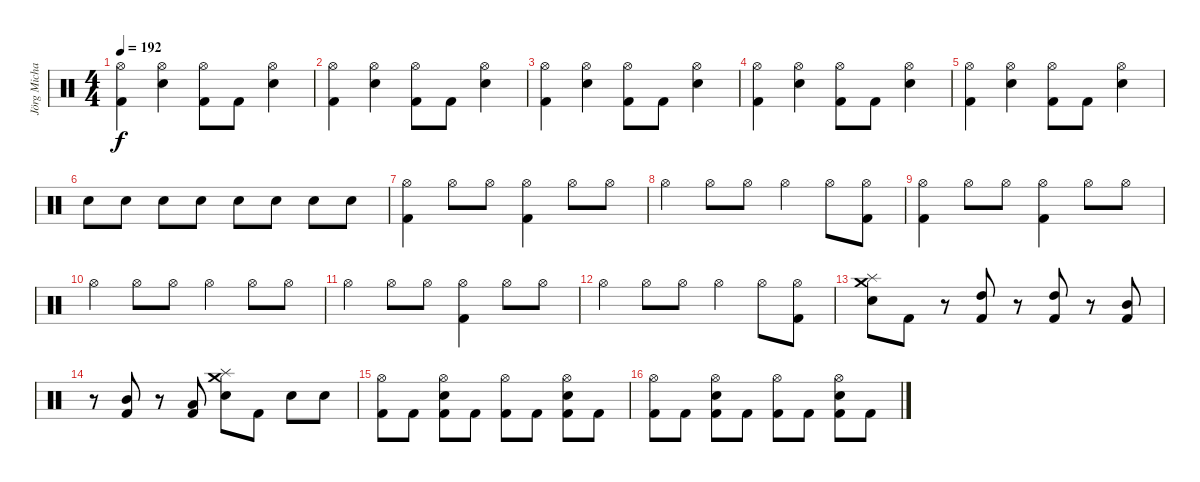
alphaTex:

\track ("Jörg Michael" "Jörg Micha") {instrument percussion}
\staff {score}
\articulation defaults
\ts (4 4)
\tempo 192
\clef neutral
\ks c
("Hi-Hat (open)" "Kick (hit) 2").4{dy f} ("Hi-Hat (open)" "Electric Snare (hit)").4 ("Hi-Hat (open)" "Kick (hit) 2").8 "Kick (hit) 2".8 ("Hi-Hat (open)" "Electric Snare (hit)").4 |
("Hi-Hat (open)" "Kick (hit) 2").4 ("Hi-Hat (open)" "Electric Snare (hit)").4 ("Hi-Hat (open)" "Kick (hit) 2").8 "Kick (hit) 2".8 ("Hi-Hat (open)" "Electric Snare (hit)").4 |
("Hi-Hat (open)" "Kick (hit) 2").4 ("Hi-Hat (open)" "Electric Snare (hit)").4 ("Hi-Hat (open)" "Kick (hit) 2").8 "Kick (hit) 2".8 ("Hi-Hat (open)" "Electric Snare (hit)").4 |
("Hi-Hat (open)" "Kick (hit) 2").4 ("Hi-Hat (open)" "Electric Snare (hit)").4 ("Hi-Hat (open)" "Kick (hit) 2").8 "Kick (hit) 2".8 ("Hi-Hat (open)" "Electric Snare (hit)").4 |
("Hi-Hat (open)" "Kick (hit) 2").4 ("Hi-Hat (open)" "Electric Snare (hit)").4 ("Hi-Hat (open)" "Kick (hit) 2").8 "Kick (hit) 2".8 ("Hi-Hat (open)" "Electric Snare (hit)").4 |
"Snare (hit) 2".8 "Snare (hit) 2".8 "Snare (hit) 2".8 "Snare (hit) 2".8 "Snare (hit) 2".8 "Snare (hit) 2".8 "Snare (hit) 2".8 "Snare (hit) 2".8 |
("Kick (hit) 2" "Hi-Hat (open)").4 "Hi-Hat (open)".8 "Hi-Hat (open)".8 ("Kick (hit) 2" "Hi-Hat (open)").4 "Hi-Hat (open)".8 "Hi-Hat (open)".8 |
"Hi-Hat (open)".4 "Hi-Hat (open)".8 "Hi-Hat (open)".8 "Hi-Hat (open)".4 "Hi-Hat (open)".8 ("Kick (hit) 2" "Hi-Hat (open)").8 |
("Kick (hit) 2" "Hi-Hat (open)").4 "Hi-Hat (open)".8 "Hi-Hat (open)".8 ("Kick (hit) 2" "Hi-Hat (open)").4 "Hi-Hat (open)".8 "Hi-Hat (open)".8 |
"Hi-Hat (open)".4 "Hi-Hat (open)".8 "Hi-Hat (open)".8 "Hi-Hat (open)".4 "Hi-Hat (open)".8 "Hi-Hat (open)".8 |
"Hi-Hat (open)".4 "Hi-Hat (open)".8 "Hi-Hat (open)".8 ("Kick (hit) 2" "Hi-Hat (open)").4 "Hi-Hat (open)".8 "Hi-Hat (open)".8 |
"Hi-Hat (open)".4 "Hi-Hat (open)".8 "Hi-Hat (open)".8 "Hi-Hat (open)".4 "Hi-Hat (open)".8 ("Kick (hit) 2" "Hi-Hat (open)").8 |
("Splash (hit)" "Crash medium (hit)" "Snare (hit) 2").8 "Kick (hit) 2".8 r.8 ("High Tom (hit)" "Kick (hit) 2").8 r.8 ("High Tom (hit)" "Kick (hit) 2").8 r.8 ("Mid Tom (hit)" "Kick (hit) 2").8 |
r.8 ("Mid Tom (hit)" "Kick (hit) 2").8 r.8 ("Low Tom (hit)" "Kick (hit) 2").8 ("Splash (hit)" "Crash medium (hit)" "Snare (hit) 2").8 "Kick (hit) 2".8 "Snare (hit) 2".8 "Snare (hit) 2".8 |
("Hi-Hat (open)" "Kick (hit) 2").8 "Kick (hit) 2".8 ("Electric Snare (hit)" "Hi-Hat (open)" "Kick (hit) 2").8 "Kick (hit) 2".8 ("Hi-Hat (open)" "Kick (hit) 2").8 "Kick (hit) 2".8 ("Electric Snare (hit)" "Hi-Hat (open)" "Kick (hit) 2").8 "Kick (hit) 2".8 |
("Hi-Hat (open)" "Kick (hit) 2").8 "Kick (hit) 2".8 ("Electric Snare (hit)" "Hi-Hat (open)" "Kick (hit) 2").8 "Kick (hit) 2".8 ("Hi-Hat (open)" "Kick (hit) 2").8 "Kick (hit) 2".8 ("Electric Snare (hit)" "Hi-Hat (open)" "Kick (hit) 2").8 "Kick (hit) 2".8
